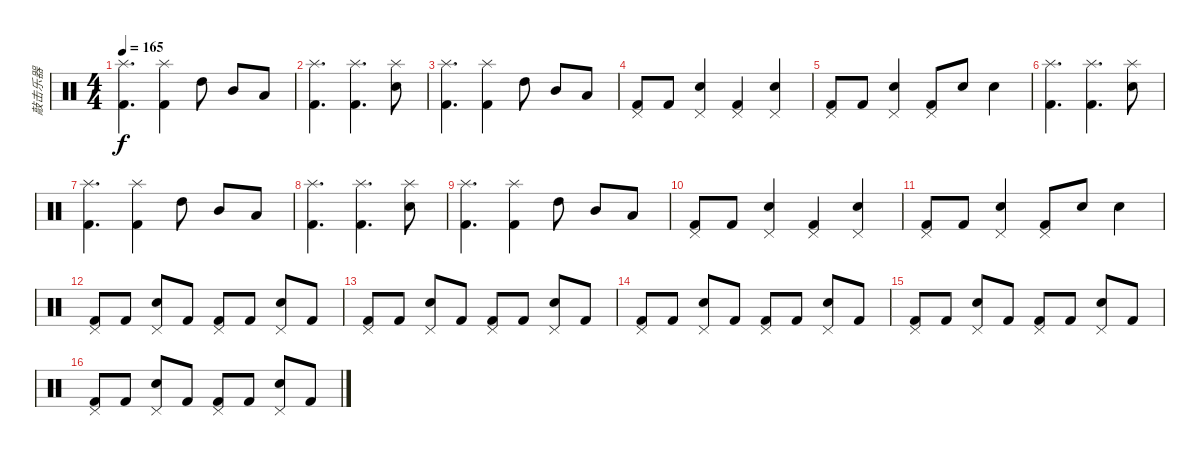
\track ("敲击乐器" "敲击乐器") {instrument percussion}
\staff {score}
\articulation defaults
\ts (4 4)
\tempo 165
\clef neutral
\ks c
("Kick (hit) 2" "Splash (hit)").4{d dy f} ("Kick (hit) 2" "Splash (hit)").4 "High Tom (hit)".8 "Mid Tom (hit)".8 "Low Tom (hit)".8 |
("Kick (hit) 2" "Splash (hit)").4{d} ("Kick (hit) 2" "Splash (hit)").4{d} ("Snare (hit) 2" "Splash (hit)").8 |
("Kick (hit) 2" "Splash (hit)").4{d} ("Kick (hit) 2" "Splash (hit)").4 "High Tom (hit)".8 "Mid Tom (hit)".8 "Low Tom (hit)".8 |
("Kick (hit) 2" "Pedal Hi-Hat (hit)").8 "Kick (hit) 2".8 ("Snare (hit) 2" "Pedal Hi-Hat (hit)").4 ("Kick (hit) 2" "Pedal Hi-Hat (hit)").4 ("Snare (hit) 2" "Pedal Hi-Hat (hit)").4 |
("Kick (hit) 2" "Pedal Hi-Hat (hit)").8 "Kick (hit) 2".8 ("Snare (hit) 2" "Pedal Hi-Hat (hit)").4 ("Kick (hit) 2" "Pedal Hi-Hat (hit)").8 "Snare (hit) 2".8 "Snare (hit) 2".4 |
("Kick (hit) 2" "Splash (hit)").4{d} ("Kick (hit) 2" "Splash (hit)").4{d} ("Snare (hit) 2" "Splash (hit)").8 |
("Kick (hit) 2" "Splash (hit)").4{d} ("Kick (hit) 2" "Splash (hit)").4 "High Tom (hit)".8 "Mid Tom (hit)".8 "Low Tom (hit)".8 |
("Kick (hit) 2" "Splash (hit)").4{d} ("Kick (hit) 2" "Splash (hit)").4{d} ("Snare (hit) 2" "Splash (hit)").8 |
("Kick (hit) 2" "Splash (hit)").4{d} ("Kick (hit) 2" "Splash (hit)").4 "High Tom (hit)".8 "Mid Tom (hit)".8 "Low Tom (hit)".8 |
("Kick (hit) 2" "Pedal Hi-Hat (hit)").8 "Kick (hit) 2".8 ("Snare (hit) 2" "Pedal Hi-Hat (hit)").4 ("Kick (hit) 2" "Pedal Hi-Hat (hit)").4 ("Snare (hit) 2" "Pedal Hi-Hat (hit)").4 |
("Kick (hit) 2" "Pedal Hi-Hat (hit)").8 "Kick (hit) 2".8 ("Snare (hit) 2" "Pedal Hi-Hat (hit)").4 ("Kick (hit) 2" "Pedal Hi-Hat (hit)").8 "Snare (hit) 2".8 "Snare (hit) 2".4 |
("Kick (hit) 2" "Pedal Hi-Hat (hit)").8 "Kick (hit) 2".8 ("Snare (hit) 2" "Pedal Hi-Hat (hit)").8 "Kick (hit) 2".8 ("Kick (hit) 2" "Pedal Hi-Hat (hit)").8 "Kick (hit) 2".8 ("Snare (hit) 2" "Pedal Hi-Hat (hit)").8 "Kick (hit) 2".8 |
("Kick (hit) 2" "Pedal Hi-Hat (hit)").8 "Kick (hit) 2".8 ("Snare (hit) 2" "Pedal Hi-Hat (hit)").8 "Kick (hit) 2".8 ("Kick (hit) 2" "Pedal Hi-Hat (hit)").8 "Kick (hit) 2".8 ("Snare (hit) 2" "Pedal Hi-Hat (hit)").8 "Kick (hit) 2".8 |
("Kick (hit) 2" "Pedal Hi-Hat (hit)").8 "Kick (hit) 2".8 ("Snare (hit) 2" "Pedal Hi-Hat (hit)").8 "Kick (hit) 2".8 ("Kick (hit) 2" "Pedal Hi-Hat (hit)").8 "Kick (hit) 2".8 ("Snare (hit) 2" "Pedal Hi-Hat (hit)").8 "Kick (hit) 2".8 |
("Kick (hit) 2" "Pedal Hi-Hat (hit)").8 "Kick (hit) 2".8 ("Snare (hit) 2" "Pedal Hi-Hat (hit)").8 "Kick (hit) 2".8 ("Kick (hit) 2" "Pedal Hi-Hat (hit)").8 "Kick (hit) 2".8 ("Snare (hit) 2" "Pedal Hi-Hat (hit)").8 "Kick (hit) 2".8 |
("Kick (hit) 2" "Pedal Hi-Hat (hit)").8 "Kick (hit) 2".8 ("Snare (hit) 2" "Pedal Hi-Hat (hit)").8 "Kick (hit) 2".8 ("Kick (hit) 2" "Pedal Hi-Hat (hit)").8 "Kick (hit) 2".8 ("Snare (hit) 2" "Pedal Hi-Hat (hit)").8 "Kick (hit) 2".8
